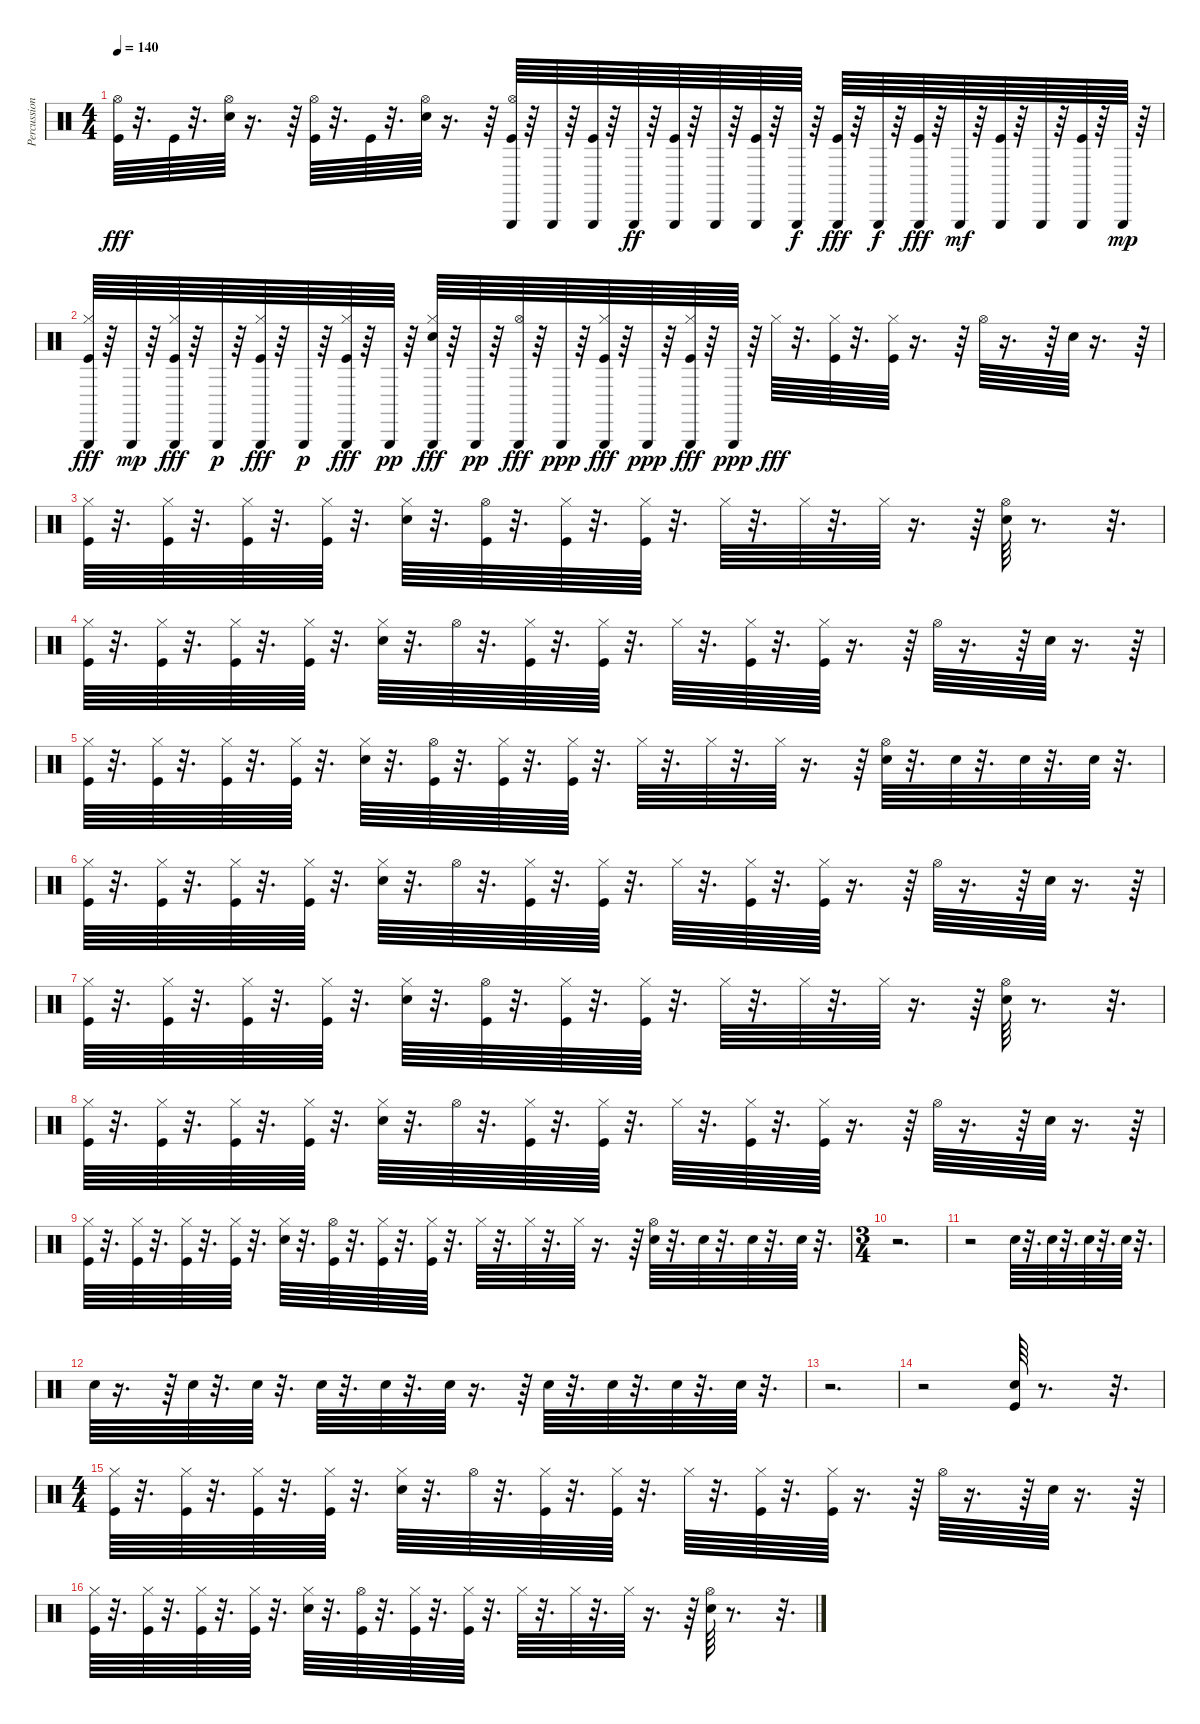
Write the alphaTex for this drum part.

\track ("Percussion [Room Kit]" "Percussion") {instrument percussion}
\staff {score}
\articulation defaults
\ts (4 4)
\tempo 140
\clef neutral
\ks c
("Kick (hit)" "Hi-Hat (open)").64{dy fff} r.32{d} "Kick (hit)".64 r.32{d} ("Electric Snare (hit)" "Hi-Hat (open)").64 r.16{d} r.64 ("Kick (hit)" "Hi-Hat (open)").64 r.32{d} "Kick (hit)".64 r.32{d} ("Electric Snare (hit)" "Hi-Hat (open)").64 r.16{d} r.64 ("Kick (hit)" "Hi-Hat (open)" "Triangle (hit)").64 r.64 "Triangle (hit)".64 r.64 ("Kick (hit)" "Triangle (hit)").64 r.64 "Triangle (hit)".64{dy ff} r.64 ("Kick (hit)" "Triangle (hit)").64 r.64 "Triangle (hit)".64 r.64 ("Kick (hit)" "Triangle (hit)").64 r.64 "Triangle (hit)".64{dy f} r.64 ("Kick (hit)" "Triangle (hit)").64{dy fff} r.64 "Triangle (hit)".64{dy f} r.64 ("Kick (hit)" "Triangle (hit)").64{dy fff} r.64 "Triangle (hit)".64{dy mf} r.64 ("Kick (hit)" "Triangle (hit)").64 r.64 "Triangle (hit)".64 r.64 ("Kick (hit)" "Triangle (hit)").64 r.64 "Triangle (hit)".64{dy mp} r.64 |
("Triangle (hit)" "Kick (hit)" "Hi-Hat (closed)").64{dy fff} r.64 "Triangle (hit)".64{dy mp} r.64 ("Triangle (hit)" "Kick (hit)" "Hi-Hat (closed)").64{dy fff} r.64 "Triangle (hit)".64{dy p} r.64 ("Triangle (hit)" "Kick (hit)" "Hi-Hat (closed)").64{dy fff} r.64 "Triangle (hit)".64{dy p} r.64 ("Triangle (hit)" "Kick (hit)" "Hi-Hat (closed)").64{dy fff} r.64 "Triangle (hit)".64{dy pp} r.64 ("Triangle (hit)" "Electric Snare (hit)" "Hi-Hat (closed)").64{dy fff} r.64 "Triangle (hit)".64{dy pp} r.64 ("Triangle (hit)" "Hi-Hat (open)").64{dy fff} r.64 "Triangle (hit)".64{dy ppp} r.64 ("Triangle (hit)" "Kick (hit)" "Hi-Hat (closed)").64{dy fff} r.64 "Triangle (hit)".64{dy ppp} r.64 ("Triangle (hit)" "Kick (hit)" "Hi-Hat (closed)").64{dy fff} r.64 "Triangle (hit)".64{dy ppp} r.64 "Hi-Hat (closed)".64{dy fff} r.32{d} ("Kick (hit)" "Hi-Hat (closed)").64 r.32{d} ("Kick (hit)" "Hi-Hat (closed)").64 r.16{d} r.64 "Hi-Hat (open)".64 r.16{d} r.64 "Electric Snare (hit)".64 r.16{d} r.64 |
("Kick (hit)" "Hi-Hat (closed)").64 r.32{d} ("Kick (hit)" "Hi-Hat (closed)").64 r.32{d} ("Kick (hit)" "Hi-Hat (closed)").64 r.32{d} ("Kick (hit)" "Hi-Hat (closed)").64 r.32{d} ("Electric Snare (hit)" "Hi-Hat (closed)").64 r.32{d} ("Kick (hit)" "Hi-Hat (open)").64 r.32{d} ("Kick (hit)" "Hi-Hat (closed)").64 r.32{d} ("Kick (hit)" "Hi-Hat (closed)").64 r.32{d} "Hi-Hat (closed)".64 r.32{d} "Hi-Hat (closed)".64 r.32{d} "Hi-Hat (closed)".64 r.16{d} r.64 ("Electric Snare (hit)" "Hi-Hat (open)").64 r.8{d} r.32{d} |
("Kick (hit)" "Hi-Hat (closed)").64 r.32{d} ("Kick (hit)" "Hi-Hat (closed)").64 r.32{d} ("Kick (hit)" "Hi-Hat (closed)").64 r.32{d} ("Kick (hit)" "Hi-Hat (closed)").64 r.32{d} ("Electric Snare (hit)" "Hi-Hat (closed)").64 r.32{d} "Hi-Hat (open)".64 r.32{d} ("Kick (hit)" "Hi-Hat (closed)").64 r.32{d} ("Kick (hit)" "Hi-Hat (closed)").64 r.32{d} "Hi-Hat (closed)".64 r.32{d} ("Kick (hit)" "Hi-Hat (closed)").64 r.32{d} ("Kick (hit)" "Hi-Hat (closed)").64 r.16{d} r.64 "Hi-Hat (open)".64 r.16{d} r.64 "Electric Snare (hit)".64 r.16{d} r.64 |
("Kick (hit)" "Hi-Hat (closed)").64 r.32{d} ("Kick (hit)" "Hi-Hat (closed)").64 r.32{d} ("Kick (hit)" "Hi-Hat (closed)").64 r.32{d} ("Kick (hit)" "Hi-Hat (closed)").64 r.32{d} ("Electric Snare (hit)" "Hi-Hat (closed)").64 r.32{d} ("Kick (hit)" "Hi-Hat (open)").64 r.32{d} ("Kick (hit)" "Hi-Hat (closed)").64 r.32{d} ("Kick (hit)" "Hi-Hat (closed)").64 r.32{d} "Hi-Hat (closed)".64 r.32{d} "Hi-Hat (closed)".64 r.32{d} "Hi-Hat (closed)".64 r.16{d} r.64 ("Electric Snare (hit)" "Hi-Hat (open)").64 r.32{d} "Electric Snare (hit)".64 r.32{d} "Electric Snare (hit)".64 r.32{d} "Electric Snare (hit)".64 r.32{d} |
("Kick (hit)" "Hi-Hat (closed)").64 r.32{d} ("Kick (hit)" "Hi-Hat (closed)").64 r.32{d} ("Kick (hit)" "Hi-Hat (closed)").64 r.32{d} ("Kick (hit)" "Hi-Hat (closed)").64 r.32{d} ("Electric Snare (hit)" "Hi-Hat (closed)").64 r.32{d} "Hi-Hat (open)".64 r.32{d} ("Kick (hit)" "Hi-Hat (closed)").64 r.32{d} ("Kick (hit)" "Hi-Hat (closed)").64 r.32{d} "Hi-Hat (closed)".64 r.32{d} ("Kick (hit)" "Hi-Hat (closed)").64 r.32{d} ("Kick (hit)" "Hi-Hat (closed)").64 r.16{d} r.64 "Hi-Hat (open)".64 r.16{d} r.64 "Electric Snare (hit)".64 r.16{d} r.64 |
("Kick (hit)" "Hi-Hat (closed)").64 r.32{d} ("Kick (hit)" "Hi-Hat (closed)").64 r.32{d} ("Kick (hit)" "Hi-Hat (closed)").64 r.32{d} ("Kick (hit)" "Hi-Hat (closed)").64 r.32{d} ("Electric Snare (hit)" "Hi-Hat (closed)").64 r.32{d} ("Kick (hit)" "Hi-Hat (open)").64 r.32{d} ("Kick (hit)" "Hi-Hat (closed)").64 r.32{d} ("Kick (hit)" "Hi-Hat (closed)").64 r.32{d} "Hi-Hat (closed)".64 r.32{d} "Hi-Hat (closed)".64 r.32{d} "Hi-Hat (closed)".64 r.16{d} r.64 ("Electric Snare (hit)" "Hi-Hat (open)").64 r.8{d} r.32{d} |
("Kick (hit)" "Hi-Hat (closed)").64 r.32{d} ("Kick (hit)" "Hi-Hat (closed)").64 r.32{d} ("Kick (hit)" "Hi-Hat (closed)").64 r.32{d} ("Kick (hit)" "Hi-Hat (closed)").64 r.32{d} ("Electric Snare (hit)" "Hi-Hat (closed)").64 r.32{d} "Hi-Hat (open)".64 r.32{d} ("Kick (hit)" "Hi-Hat (closed)").64 r.32{d} ("Kick (hit)" "Hi-Hat (closed)").64 r.32{d} "Hi-Hat (closed)".64 r.32{d} ("Kick (hit)" "Hi-Hat (closed)").64 r.32{d} ("Kick (hit)" "Hi-Hat (closed)").64 r.16{d} r.64 "Hi-Hat (open)".64 r.16{d} r.64 "Electric Snare (hit)".64 r.16{d} r.64 |
("Kick (hit)" "Hi-Hat (closed)").64 r.32{d} ("Kick (hit)" "Hi-Hat (closed)").64 r.32{d} ("Kick (hit)" "Hi-Hat (closed)").64 r.32{d} ("Kick (hit)" "Hi-Hat (closed)").64 r.32{d} ("Electric Snare (hit)" "Hi-Hat (closed)").64 r.32{d} ("Kick (hit)" "Hi-Hat (open)").64 r.32{d} ("Kick (hit)" "Hi-Hat (closed)").64 r.32{d} ("Kick (hit)" "Hi-Hat (closed)").64 r.32{d} "Hi-Hat (closed)".64 r.32{d} "Hi-Hat (closed)".64 r.32{d} "Hi-Hat (closed)".64 r.16{d} r.64 ("Electric Snare (hit)" "Hi-Hat (open)").64 r.32{d} "Electric Snare (hit)".64 r.32{d} "Electric Snare (hit)".64 r.32{d} "Electric Snare (hit)".64 r.32{d} |
\ts (3 4)
r.2{d} |
r.2 "Electric Snare (hit)".64 r.32{d} "Electric Snare (hit)".64 r.32{d} "Electric Snare (hit)".64 r.32{d} "Electric Snare (hit)".64 r.32{d} |
"Electric Snare (hit)".64 r.16{d} r.64 "Electric Snare (hit)".64 r.32{d} "Electric Snare (hit)".64 r.32{d} "Electric Snare (hit)".64 r.32{d} "Electric Snare (hit)".64 r.32{d} "Electric Snare (hit)".64 r.16{d} r.64 "Electric Snare (hit)".64 r.32{d} "Electric Snare (hit)".64 r.32{d} "Electric Snare (hit)".64 r.32{d} "Electric Snare (hit)".64 r.32{d} |
r.2{d} |
r.2 ("Electric Snare (hit)" "Kick (hit)").64 r.8{d} r.32{d} |
\ts (4 4)
("Kick (hit)" "Hi-Hat (closed)").64 r.32{d} ("Kick (hit)" "Hi-Hat (closed)").64 r.32{d} ("Kick (hit)" "Hi-Hat (closed)").64 r.32{d} ("Kick (hit)" "Hi-Hat (closed)").64 r.32{d} ("Electric Snare (hit)" "Hi-Hat (closed)").64 r.32{d} "Hi-Hat (open)".64 r.32{d} ("Kick (hit)" "Hi-Hat (closed)").64 r.32{d} ("Kick (hit)" "Hi-Hat (closed)").64 r.32{d} "Hi-Hat (closed)".64 r.32{d} ("Kick (hit)" "Hi-Hat (closed)").64 r.32{d} ("Kick (hit)" "Hi-Hat (closed)").64 r.16{d} r.64 "Hi-Hat (open)".64 r.16{d} r.64 "Electric Snare (hit)".64 r.16{d} r.64 |
("Kick (hit)" "Hi-Hat (closed)").64 r.32{d} ("Kick (hit)" "Hi-Hat (closed)").64 r.32{d} ("Kick (hit)" "Hi-Hat (closed)").64 r.32{d} ("Kick (hit)" "Hi-Hat (closed)").64 r.32{d} ("Electric Snare (hit)" "Hi-Hat (closed)").64 r.32{d} ("Kick (hit)" "Hi-Hat (open)").64 r.32{d} ("Kick (hit)" "Hi-Hat (closed)").64 r.32{d} ("Kick (hit)" "Hi-Hat (closed)").64 r.32{d} "Hi-Hat (closed)".64 r.32{d} "Hi-Hat (closed)".64 r.32{d} "Hi-Hat (closed)".64 r.16{d} r.64 ("Electric Snare (hit)" "Hi-Hat (open)").64 r.8{d} r.32{d}
